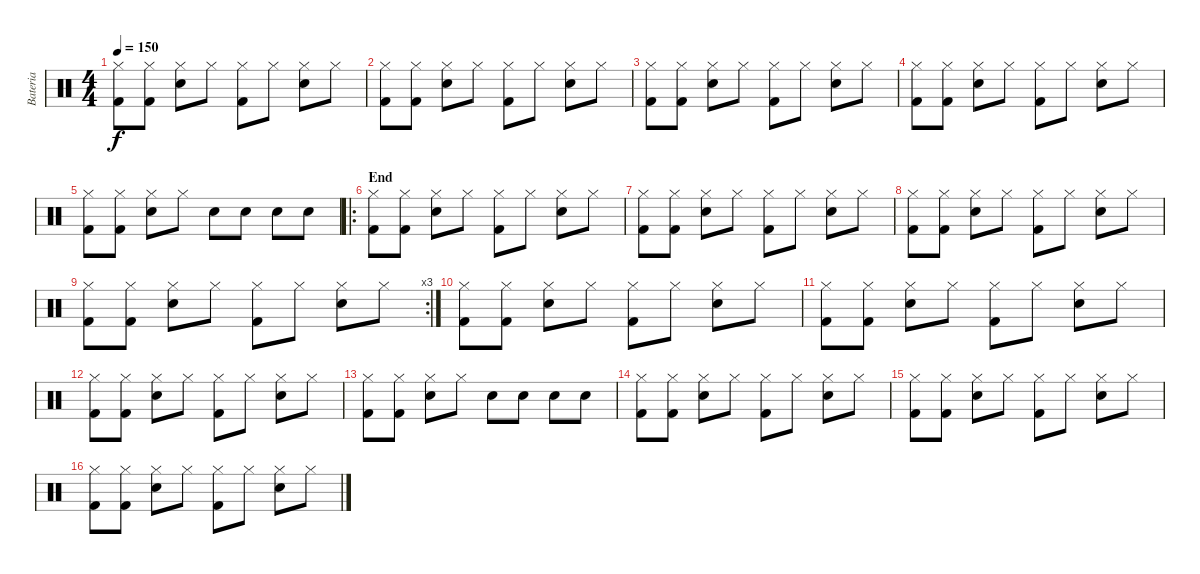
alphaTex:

\track ("Bateria" "Bateria") {instrument percussion}
\staff {score}
\articulation defaults
\ts (4 4)
\tempo 150
\clef neutral
\ks c
("Hi-Hat (closed)" "Kick (hit) 2").8{dy f} ("Hi-Hat (closed)" "Kick (hit) 2").8 ("Hi-Hat (closed)" "Snare (hit) 2").8 "Hi-Hat (closed)".8 ("Hi-Hat (closed)" "Kick (hit) 2").8 "Hi-Hat (closed)".8 ("Hi-Hat (closed)" "Snare (hit) 2").8 "Hi-Hat (closed)".8 |
("Hi-Hat (closed)" "Kick (hit) 2").8 ("Hi-Hat (closed)" "Kick (hit) 2").8 ("Hi-Hat (closed)" "Snare (hit) 2").8 "Hi-Hat (closed)".8 ("Hi-Hat (closed)" "Kick (hit) 2").8 "Hi-Hat (closed)".8 ("Hi-Hat (closed)" "Snare (hit) 2").8 "Hi-Hat (closed)".8 |
("Hi-Hat (closed)" "Kick (hit) 2").8 ("Hi-Hat (closed)" "Kick (hit) 2").8 ("Hi-Hat (closed)" "Snare (hit) 2").8 "Hi-Hat (closed)".8 ("Hi-Hat (closed)" "Kick (hit) 2").8 "Hi-Hat (closed)".8 ("Hi-Hat (closed)" "Snare (hit) 2").8 "Hi-Hat (closed)".8 |
("Hi-Hat (closed)" "Kick (hit) 2").8 ("Hi-Hat (closed)" "Kick (hit) 2").8 ("Hi-Hat (closed)" "Snare (hit) 2").8 "Hi-Hat (closed)".8 ("Hi-Hat (closed)" "Kick (hit) 2").8 "Hi-Hat (closed)".8 ("Hi-Hat (closed)" "Snare (hit) 2").8 "Hi-Hat (closed)".8 |
("Hi-Hat (closed)" "Kick (hit) 2").8 ("Hi-Hat (closed)" "Kick (hit) 2").8 ("Hi-Hat (closed)" "Snare (hit) 2").8 "Hi-Hat (closed)".8 "Snare (hit) 2".8 "Snare (hit) 2".8 "Snare (hit) 2".8 "Snare (hit) 2".8 |
\ro
\section ("" "End")
("Hi-Hat (closed)" "Kick (hit) 2").8 ("Hi-Hat (closed)" "Kick (hit) 2").8 ("Hi-Hat (closed)" "Snare (hit) 2").8 "Hi-Hat (closed)".8 ("Hi-Hat (closed)" "Kick (hit) 2").8 "Hi-Hat (closed)".8 ("Hi-Hat (closed)" "Snare (hit) 2").8 "Hi-Hat (closed)".8 |
("Hi-Hat (closed)" "Kick (hit) 2").8 ("Hi-Hat (closed)" "Kick (hit) 2").8 ("Hi-Hat (closed)" "Snare (hit) 2").8 "Hi-Hat (closed)".8 ("Hi-Hat (closed)" "Kick (hit) 2").8 "Hi-Hat (closed)".8 ("Hi-Hat (closed)" "Snare (hit) 2").8 "Hi-Hat (closed)".8 |
("Hi-Hat (closed)" "Kick (hit) 2").8 ("Hi-Hat (closed)" "Kick (hit) 2").8 ("Hi-Hat (closed)" "Snare (hit) 2").8 "Hi-Hat (closed)".8 ("Hi-Hat (closed)" "Kick (hit) 2").8 "Hi-Hat (closed)".8 ("Hi-Hat (closed)" "Snare (hit) 2").8 "Hi-Hat (closed)".8 |
\rc 3
("Hi-Hat (closed)" "Kick (hit) 2").8 ("Hi-Hat (closed)" "Kick (hit) 2").8 ("Hi-Hat (closed)" "Snare (hit) 2").8 "Hi-Hat (closed)".8 ("Hi-Hat (closed)" "Kick (hit) 2").8 "Hi-Hat (closed)".8 ("Hi-Hat (closed)" "Snare (hit) 2").8 "Hi-Hat (closed)".8 |
("Hi-Hat (closed)" "Kick (hit) 2").8 ("Hi-Hat (closed)" "Kick (hit) 2").8 ("Hi-Hat (closed)" "Snare (hit) 2").8 "Hi-Hat (closed)".8 ("Hi-Hat (closed)" "Kick (hit) 2").8 "Hi-Hat (closed)".8 ("Hi-Hat (closed)" "Snare (hit) 2").8 "Hi-Hat (closed)".8 |
("Hi-Hat (closed)" "Kick (hit) 2").8 ("Hi-Hat (closed)" "Kick (hit) 2").8 ("Hi-Hat (closed)" "Snare (hit) 2").8 "Hi-Hat (closed)".8 ("Hi-Hat (closed)" "Kick (hit) 2").8 "Hi-Hat (closed)".8 ("Hi-Hat (closed)" "Snare (hit) 2").8 "Hi-Hat (closed)".8 |
("Hi-Hat (closed)" "Kick (hit) 2").8 ("Hi-Hat (closed)" "Kick (hit) 2").8 ("Hi-Hat (closed)" "Snare (hit) 2").8 "Hi-Hat (closed)".8 ("Hi-Hat (closed)" "Kick (hit) 2").8 "Hi-Hat (closed)".8 ("Hi-Hat (closed)" "Snare (hit) 2").8 "Hi-Hat (closed)".8 |
("Hi-Hat (closed)" "Kick (hit) 2").8 ("Hi-Hat (closed)" "Kick (hit) 2").8 ("Hi-Hat (closed)" "Snare (hit) 2").8 "Hi-Hat (closed)".8 "Snare (hit) 2".8 "Snare (hit) 2".8 "Snare (hit) 2".8 "Snare (hit) 2".8 |
("Hi-Hat (closed)" "Kick (hit) 2").8 ("Hi-Hat (closed)" "Kick (hit) 2").8 ("Hi-Hat (closed)" "Snare (hit) 2").8 "Hi-Hat (closed)".8 ("Hi-Hat (closed)" "Kick (hit) 2").8 "Hi-Hat (closed)".8 ("Hi-Hat (closed)" "Snare (hit) 2").8 "Hi-Hat (closed)".8 |
("Hi-Hat (closed)" "Kick (hit) 2").8 ("Hi-Hat (closed)" "Kick (hit) 2").8 ("Hi-Hat (closed)" "Snare (hit) 2").8 "Hi-Hat (closed)".8 ("Hi-Hat (closed)" "Kick (hit) 2").8 "Hi-Hat (closed)".8 ("Hi-Hat (closed)" "Snare (hit) 2").8 "Hi-Hat (closed)".8 |
("Hi-Hat (closed)" "Kick (hit) 2").8 ("Hi-Hat (closed)" "Kick (hit) 2").8 ("Hi-Hat (closed)" "Snare (hit) 2").8 "Hi-Hat (closed)".8 ("Hi-Hat (closed)" "Kick (hit) 2").8 "Hi-Hat (closed)".8 ("Hi-Hat (closed)" "Snare (hit) 2").8 "Hi-Hat (closed)".8
